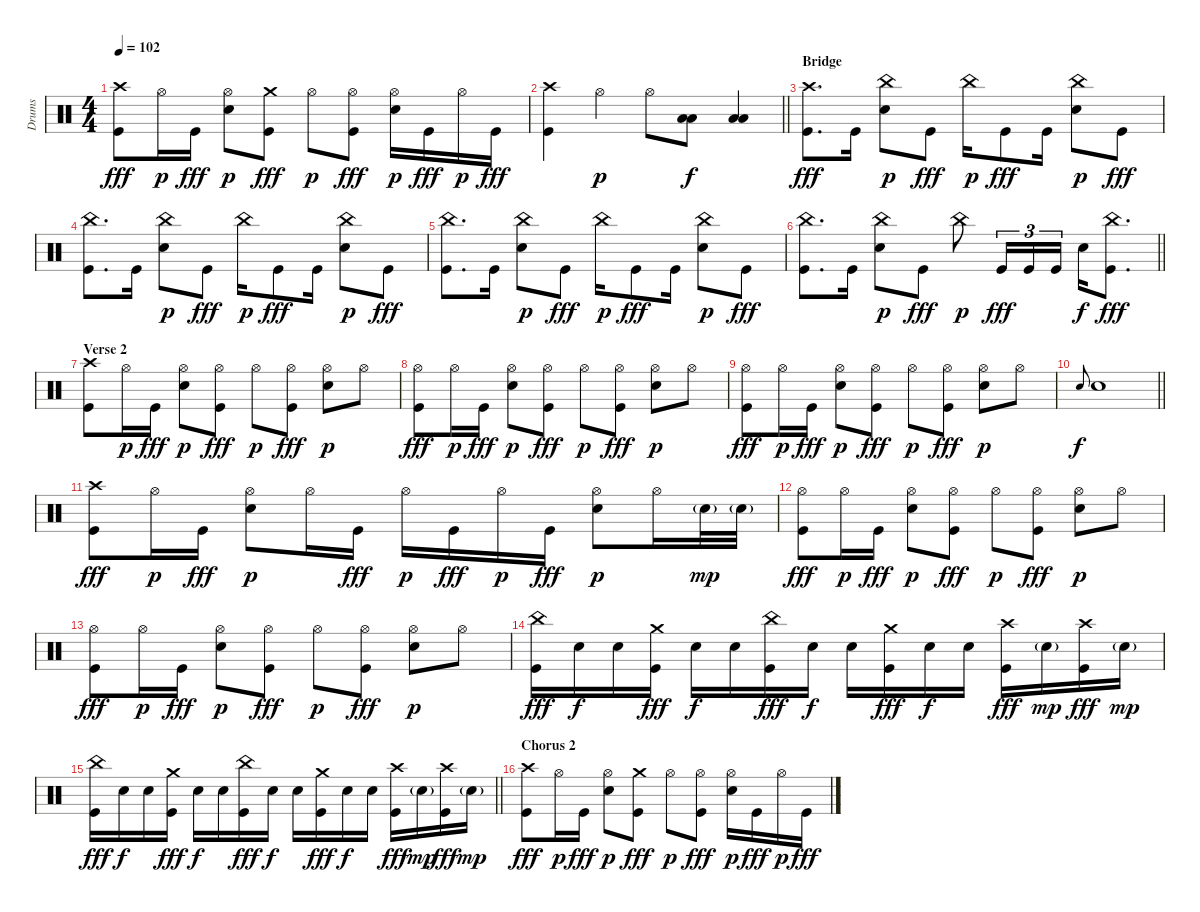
\track ("Drums" "Drums") {instrument percussion}
\staff
\articulation defaults
\ts (4 4)
\tempo 102
\clef neutral
\ks c
("Crash high (hit)" "Kick (hit)").8{dy fff} "Hi-Hat (open)".16{dy p} "Kick (hit)".16{dy fff} ("Hi-Hat (open)" "Electric Snare (hit)").8{dy p} ("Crash medium (hit)" "Kick (hit)").8{dy fff} "Hi-Hat (open)".8{dy p} ("Hi-Hat (open)" "Kick (hit)").8{dy fff} ("Hi-Hat (open)" "Electric Snare (hit)").16{dy p} "Kick (hit)".16{dy fff} "Hi-Hat (open)".16{dy p} "Kick (hit)".16{dy fff} |
\barLineRight lightlight
("Crash high (hit)" "Kick (hit)").4 "Hi-Hat (open)".4{dy p} "Hi-Hat (open)".8 ("Low Tom (hit)" "Low Floor Tom (hit)").8{dy f} ("Low Tom (hit)" "Low Floor Tom (hit)").4 |
\section ("" "Bridge")
("Crash high (hit)" "Kick (hit)").8{d dy fff} "Kick (hit)".16 ("China (hit)" "Electric Snare (hit)").8{dy p} "Kick (hit)".8{dy fff} "China (hit)".16{dy p} "Kick (hit)".8{dy fff} "Kick (hit)".16 ("China (hit)" "Electric Snare (hit)").8{dy p} "Kick (hit)".8{dy fff} |
("China (hit)" "Kick (hit)").8{d} "Kick (hit)".16 ("China (hit)" "Electric Snare (hit)").8{dy p} "Kick (hit)".8{dy fff} "China (hit)".16{dy p} "Kick (hit)".8{dy fff} "Kick (hit)".16 ("China (hit)" "Electric Snare (hit)").8{dy p} "Kick (hit)".8{dy fff} |
("China (hit)" "Kick (hit)").8{d} "Kick (hit)".16 ("China (hit)" "Electric Snare (hit)").8{dy p} "Kick (hit)".8{dy fff} "China (hit)".16{dy p} "Kick (hit)".8{dy fff} "Kick (hit)".16 ("China (hit)" "Electric Snare (hit)").8{dy p} "Kick (hit)".8{dy fff} |
\barLineRight lightlight
("China (hit)" "Kick (hit)").8{d} "Kick (hit)".16 ("China (hit)" "Electric Snare (hit)").8{dy p} "Kick (hit)".8{dy fff} "China (hit)".8{dy p} "Kick (hit)".16{tu (3 2) dy fff} "Kick (hit)".16{tu (3 2)} "Kick (hit)".16{tu (3 2)} "Electric Snare (hit)".16{dy f} ("China (hit)" "Kick (hit)").8{d dy fff} |
\section ("" "Verse 2")
("Crash high (hit)" "Kick (hit)").8 "Hi-Hat (open)".16{dy p} "Kick (hit)".16{dy fff} ("Hi-Hat (open)" "Electric Snare (hit)").8{dy p} ("Hi-Hat (open)" "Kick (hit)").8{dy fff} "Hi-Hat (open)".8{dy p} ("Hi-Hat (open)" "Kick (hit)").8{dy fff} ("Hi-Hat (open)" "Electric Snare (hit)").8{dy p} "Hi-Hat (open)".8 |
("Hi-Hat (open)" "Kick (hit)").8{dy fff} "Hi-Hat (open)".16{dy p} "Kick (hit)".16{dy fff} ("Hi-Hat (open)" "Electric Snare (hit)").8{dy p} ("Hi-Hat (open)" "Kick (hit)").8{dy fff} "Hi-Hat (open)".8{dy p} ("Hi-Hat (open)" "Kick (hit)").8{dy fff} ("Hi-Hat (open)" "Electric Snare (hit)").8{dy p} "Hi-Hat (open)".8 |
("Hi-Hat (open)" "Kick (hit)").8{dy fff} "Hi-Hat (open)".16{dy p} "Kick (hit)".16{dy fff} ("Hi-Hat (open)" "Electric Snare (hit)").8{dy p} ("Hi-Hat (open)" "Kick (hit)").8{dy fff} "Hi-Hat (open)".8{dy p} ("Hi-Hat (open)" "Kick (hit)").8{dy fff} ("Hi-Hat (open)" "Electric Snare (hit)").8{dy p} "Hi-Hat (open)".8 |
\barLineRight lightlight "Electric Snare (hit)".8{gr onbeat dy f} "Electric Snare (hit)".1
|
("Crash high (hit)" "Kick (hit)").8{dy fff} "Hi-Hat (open)".16{dy p} "Kick (hit)".16{dy fff} ("Hi-Hat (open)" "Electric Snare (hit)").8{dy p} "Hi-Hat (open)".16 "Kick (hit)".16{dy fff} "Hi-Hat (open)".16{dy p} "Kick (hit)".16{dy fff} "Hi-Hat (open)".16{dy p} "Kick (hit)".16{dy fff} ("Hi-Hat (open)" "Electric Snare (hit)").8{dy p} "Hi-Hat (open)".16 "Electric Snare (hit)"{g}.32{dy mp} "Electric Snare (hit)"{g}.32 |
("Hi-Hat (open)" "Kick (hit)").8{dy fff} "Hi-Hat (open)".16{dy p} "Kick (hit)".16{dy fff} ("Hi-Hat (open)" "Electric Snare (hit)").8{dy p} ("Hi-Hat (open)" "Kick (hit)").8{dy fff} "Hi-Hat (open)".8{dy p} ("Hi-Hat (open)" "Kick (hit)").8{dy fff} ("Hi-Hat (open)" "Electric Snare (hit)").8{dy p} "Hi-Hat (open)".8 |
("Hi-Hat (open)" "Kick (hit)").8{dy fff} "Hi-Hat (open)".16{dy p} "Kick (hit)".16{dy fff} ("Hi-Hat (open)" "Electric Snare (hit)").8{dy p} ("Hi-Hat (open)" "Kick (hit)").8{dy fff} "Hi-Hat (open)".8{dy p} ("Hi-Hat (open)" "Kick (hit)").8{dy fff} ("Hi-Hat (open)" "Electric Snare (hit)").8{dy p} "Hi-Hat (open)".8 |
("China (hit)" "Kick (hit)").16{dy fff} "Electric Snare (hit)".16{dy f} "Electric Snare (hit)".16 ("Crash medium (hit)" "Kick (hit)").16{dy fff} "Electric Snare (hit)".16{dy f} "Electric Snare (hit)".16 ("China (hit)" "Kick (hit)").16{dy fff} "Electric Snare (hit)".16{dy f} "Electric Snare (hit)".16 ("Crash medium (hit)" "Kick (hit)").16{dy fff} "Electric Snare (hit)".16{dy f} "Electric Snare (hit)".16 ("Crash high (hit)" "Kick (hit)").16{dy fff} "Electric Snare (hit)"{g}.16{dy mp} ("Crash high (hit)" "Kick (hit)").16{dy fff} "Electric Snare (hit)"{g}.16{dy mp} |
\barLineRight lightlight
("China (hit)" "Kick (hit)").16{dy fff} "Electric Snare (hit)".16{dy f} "Electric Snare (hit)".16 ("Crash medium (hit)" "Kick (hit)").16{dy fff} "Electric Snare (hit)".16{dy f} "Electric Snare (hit)".16 ("China (hit)" "Kick (hit)").16{dy fff} "Electric Snare (hit)".16{dy f} "Electric Snare (hit)".16 ("Crash medium (hit)" "Kick (hit)").16{dy fff} "Electric Snare (hit)".16{dy f} "Electric Snare (hit)".16 ("Crash high (hit)" "Kick (hit)").16{dy fff} "Electric Snare (hit)"{g}.16{dy mp} ("Crash high (hit)" "Kick (hit)").16{dy fff} "Electric Snare (hit)"{g}.16{dy mp} |
\section ("" "Chorus 2")
("Crash high (hit)" "Kick (hit)").8{dy fff} "Hi-Hat (open)".16{dy p} "Kick (hit)".16{dy fff} ("Hi-Hat (open)" "Electric Snare (hit)").8{dy p} ("Crash medium (hit)" "Kick (hit)").8{dy fff} "Hi-Hat (open)".8{dy p} ("Hi-Hat (open)" "Kick (hit)").8{dy fff} ("Hi-Hat (open)" "Electric Snare (hit)").16{dy p} "Kick (hit)".16{dy fff} "Hi-Hat (open)".16{dy p} "Kick (hit)".16{dy fff}
